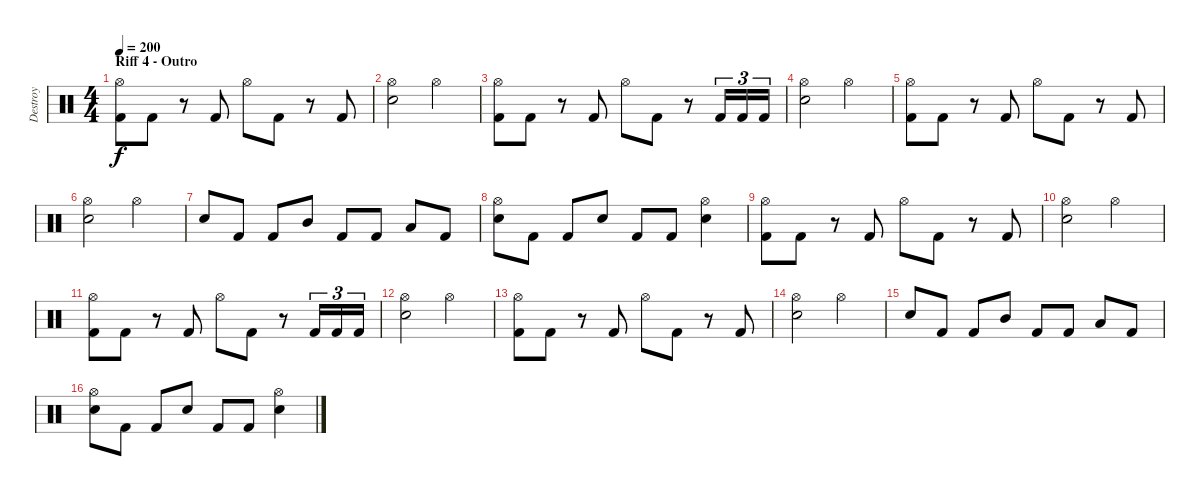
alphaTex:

\track ("Destroy" "Destroy") {instrument percussion}
\staff {score}
\articulation defaults
\ts (4 4)
\section ("" "Riff 4 - Outro")
\tempo 200
\clef neutral
\ks c
("Hi-Hat (open)" "Kick (hit) 2").8{dy f} "Kick (hit) 2".8 r.8 "Kick (hit) 2".8 "Hi-Hat (open)".8 "Kick (hit) 2".8 r.8 "Kick (hit) 2".8 |
("Hi-Hat (open)" "Snare (hit) 2").2 "Hi-Hat (open)".2 |
("Hi-Hat (open)" "Kick (hit) 2").8 "Kick (hit) 2".8 r.8 "Kick (hit) 2".8 "Hi-Hat (open)".8 "Kick (hit) 2".8 r.8 "Kick (hit) 2".16{tu (3 2)} "Kick (hit) 2".16{tu (3 2)} "Kick (hit) 2".16{tu (3 2)} |
("Hi-Hat (open)" "Snare (hit) 2").2 "Hi-Hat (open)".2 |
("Hi-Hat (open)" "Kick (hit) 2").8 "Kick (hit) 2".8 r.8 "Kick (hit) 2".8 "Hi-Hat (open)".8 "Kick (hit) 2".8 r.8 "Kick (hit) 2".8 |
("Hi-Hat (open)" "Snare (hit) 2").2 "Hi-Hat (open)".2 |
"Snare (hit) 2".8 "Kick (hit) 2".8 "Kick (hit) 2".8 "Mid Tom (hit)".8 "Kick (hit) 2".8 "Kick (hit) 2".8 "Low Tom (hit)".8 "Kick (hit) 2".8 |
("Hi-Hat (open)" "Snare (hit) 2").8 "Kick (hit) 2".8 "Kick (hit) 2".8 "Snare (hit) 2".8 "Kick (hit) 2".8 "Kick (hit) 2".8 ("Hi-Hat (open)" "Snare (hit) 2").4 |
("Hi-Hat (open)" "Kick (hit) 2").8 "Kick (hit) 2".8 r.8 "Kick (hit) 2".8 "Hi-Hat (open)".8 "Kick (hit) 2".8 r.8 "Kick (hit) 2".8 |
("Hi-Hat (open)" "Snare (hit) 2").2 "Hi-Hat (open)".2 |
("Hi-Hat (open)" "Kick (hit) 2").8 "Kick (hit) 2".8 r.8 "Kick (hit) 2".8 "Hi-Hat (open)".8 "Kick (hit) 2".8 r.8 "Kick (hit) 2".16{tu (3 2)} "Kick (hit) 2".16{tu (3 2)} "Kick (hit) 2".16{tu (3 2)} |
("Hi-Hat (open)" "Snare (hit) 2").2 "Hi-Hat (open)".2 |
("Hi-Hat (open)" "Kick (hit) 2").8 "Kick (hit) 2".8 r.8 "Kick (hit) 2".8 "Hi-Hat (open)".8 "Kick (hit) 2".8 r.8 "Kick (hit) 2".8 |
("Hi-Hat (open)" "Snare (hit) 2").2 "Hi-Hat (open)".2 |
"Snare (hit) 2".8 "Kick (hit) 2".8 "Kick (hit) 2".8 "Mid Tom (hit)".8 "Kick (hit) 2".8 "Kick (hit) 2".8 "Low Tom (hit)".8 "Kick (hit) 2".8 |
("Hi-Hat (open)" "Snare (hit) 2").8 "Kick (hit) 2".8 "Kick (hit) 2".8 "Snare (hit) 2".8 "Kick (hit) 2".8 "Kick (hit) 2".8 ("Hi-Hat (open)" "Snare (hit) 2").4
